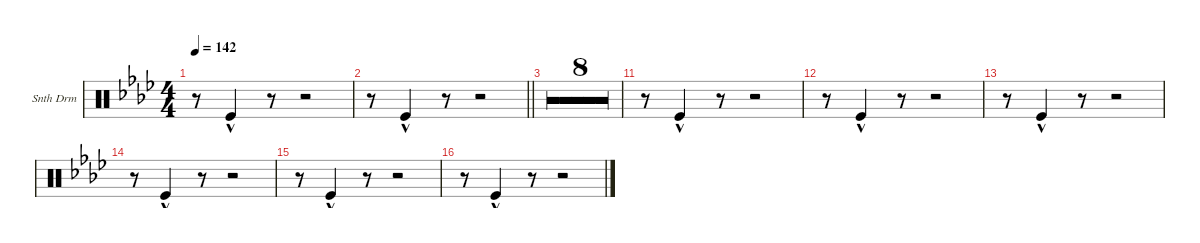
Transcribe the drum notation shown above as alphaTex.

\defaultSystemsLayout 4
\hideDynamics
\bracketExtendMode groupsimilarinstruments
\firstSystemTrackNameOrientation horizontal
\otherSystemsTrackNameOrientation horizontal
\track ("Synth Drum" "Snth Drm") {multiBarRest instrument percussion}
\staff {score}
\articulation defaults
\ts (4 4)
\tempo 142
\clef neutral
\ks ab
r.8{dy f} "Kick (hit)"{hac}.4 r.8 r.2 |
\barLineRight lightlight
r.8 "Kick (hit)"{hac}.4 r.8 r.2 |
r.1 |
r.1 |
r.1 |
r.1 |
r.1 |
r.1 |
r.1 |
\barLineRight lightlight
r.1 |
r.8 "Kick (hit)"{hac}.4 r.8 r.2 |
r.8 "Kick (hit)"{hac}.4 r.8 r.2 |
r.8 "Kick (hit)"{hac}.4 r.8 r.2 |
r.8 "Kick (hit)"{hac}.4 r.8 r.2 |
r.8 "Kick (hit)"{hac}.4 r.8 r.2 |
r.8 "Kick (hit)"{hac}.4 r.8 r.2
